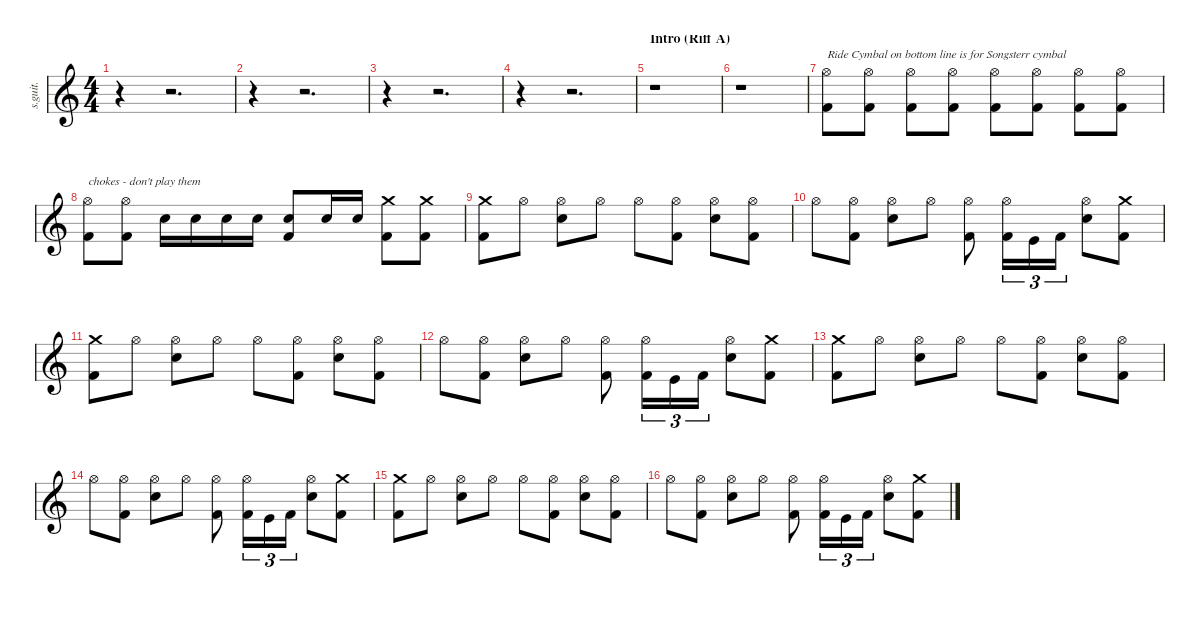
\defaultSystemsLayout 4
\hideDynamics
\bracketExtendMode nobrackets
\track ("Lars Ulrich - Drums" "s.guit.") {instrument percussion}
\staff {score}
\articulation defaults
\ts (4 4)
\beaming (8 2 2 2 2)
\tempo (140 hide)
\clef g2
\ks c
r.4{dy f} r.2{d} |
r.4 r.2{d} |
r.4 r.2{d} |
r.4 r.2{d} |
\section ("" "Intro (Riff A)")
r.1 |
r.1 |
("Hi-Hat (open)" "Kick (hit) 2").8{txt "Ride Cymbal on bottom line is for Songsterr cymbal" lyrics (0 "") lyrics (1 "") lyrics (2 "") lyrics (3 "") lyrics (4 "")} ("Hi-Hat (open)" "Kick (hit) 2").8{lyrics (0 "") lyrics (1 "") lyrics (2 "") lyrics (3 "") lyrics (4 "")} ("Hi-Hat (open)" "Kick (hit) 2").8{lyrics (0 "") lyrics (1 "") lyrics (2 "") lyrics (3 "") lyrics (4 "")} ("Hi-Hat (open)" "Kick (hit) 2").8{lyrics (0 "") lyrics (1 "") lyrics (2 "") lyrics (3 "") lyrics (4 "")} ("Hi-Hat (open)" "Kick (hit) 2").8{lyrics (0 "") lyrics (1 "") lyrics (2 "") lyrics (3 "") lyrics (4 "")} ("Hi-Hat (open)" "Kick (hit) 2").8{lyrics (0 "") lyrics (1 "") lyrics (2 "") lyrics (3 "") lyrics (4 "")} ("Hi-Hat (open)" "Kick (hit) 2").8{lyrics (0 "") lyrics (1 "") lyrics (2 "") lyrics (3 "") lyrics (4 "")} ("Hi-Hat (open)" "Kick (hit) 2").8{lyrics (0 "") lyrics (1 "") lyrics (2 "") lyrics (3 "") lyrics (4 "")} |
("Hi-Hat (open)" "Kick (hit) 2").8{txt "chokes - don't play them" lyrics (0 "") lyrics (1 "") lyrics (2 "") lyrics (3 "") lyrics (4 "")} ("Hi-Hat (open)" "Kick (hit) 2").8{lyrics (0 "") lyrics (1 "") lyrics (2 "") lyrics (3 "") lyrics (4 "")} "Snare (hit) 2".16{lyrics (0 "") lyrics (1 "") lyrics (2 "") lyrics (3 "") lyrics (4 "") dy ff} "Snare (hit) 2".16{lyrics (0 "") lyrics (1 "") lyrics (2 "") lyrics (3 "") lyrics (4 "")} "Snare (hit) 2".16{lyrics (0 "") lyrics (1 "") lyrics (2 "") lyrics (3 "") lyrics (4 "")} "Snare (hit) 2".16{lyrics (0 "") lyrics (1 "") lyrics (2 "") lyrics (3 "") lyrics (4 "")} ("Snare (hit) 2" "Kick (hit) 2").8{lyrics (0 "") lyrics (1 "") lyrics (2 "") lyrics (3 "") lyrics (4 "")} "Snare (hit) 2".16{lyrics (0 "") lyrics (1 "") lyrics (2 "") lyrics (3 "") lyrics (4 "")} "Snare (hit) 2".16{lyrics (0 "") lyrics (1 "") lyrics (2 "") lyrics (3 "") lyrics (4 "")} ("Crash medium (hit)" "Kick (hit) 2").8{lyrics (0 "") lyrics (1 "") lyrics (2 "") lyrics (3 "") lyrics (4 "") dy f} ("Crash medium (hit)" "Kick (hit) 2").8{lyrics (0 "") lyrics (1 "") lyrics (2 "") lyrics (3 "") lyrics (4 "")} |
("Crash medium (hit)" "Kick (hit) 2").8{lyrics (0 "") lyrics (1 "") lyrics (2 "") lyrics (3 "") lyrics (4 "")} "Hi-Hat (open)".8{lyrics (0 "") lyrics (1 "") lyrics (2 "") lyrics (3 "") lyrics (4 "")} ("Hi-Hat (open)" "Snare (hit) 2").8{lyrics (0 "") lyrics (1 "") lyrics (2 "") lyrics (3 "") lyrics (4 "")} "Hi-Hat (open)".8{lyrics (0 "") lyrics (1 "") lyrics (2 "") lyrics (3 "") lyrics (4 "")} "Hi-Hat (open)".8{lyrics (0 "") lyrics (1 "") lyrics (2 "") lyrics (3 "") lyrics (4 "")} ("Hi-Hat (open)" "Kick (hit) 2").8{lyrics (0 "") lyrics (1 "") lyrics (2 "") lyrics (3 "") lyrics (4 "")} ("Hi-Hat (open)" "Snare (hit) 2").8{lyrics (0 "") lyrics (1 "") lyrics (2 "") lyrics (3 "") lyrics (4 "")} ("Hi-Hat (open)" "Kick (hit) 2").8{lyrics (0 "") lyrics (1 "") lyrics (2 "") lyrics (3 "") lyrics (4 "")} |
"Hi-Hat (open)".8{lyrics (0 "") lyrics (1 "") lyrics (2 "") lyrics (3 "") lyrics (4 "")} ("Hi-Hat (open)" "Kick (hit) 2").8{lyrics (0 "") lyrics (1 "") lyrics (2 "") lyrics (3 "") lyrics (4 "")} ("Hi-Hat (open)" "Snare (hit) 2").8{lyrics (0 "") lyrics (1 "") lyrics (2 "") lyrics (3 "") lyrics (4 "")} "Hi-Hat (open)".8{lyrics (0 "") lyrics (1 "") lyrics (2 "") lyrics (3 "") lyrics (4 "")} ("Hi-Hat (open)" "Kick (hit) 2").8{lyrics (0 "") lyrics (1 "") lyrics (2 "") lyrics (3 "") lyrics (4 "")} ("Hi-Hat (open)" "Kick (hit) 2").16{tu (3 2) lyrics (0 "") lyrics (1 "") lyrics (2 "") lyrics (3 "") lyrics (4 "")} "Kick (hit)".16{tu (3 2) lyrics (0 "") lyrics (1 "") lyrics (2 "") lyrics (3 "") lyrics (4 "")} "Kick (hit) 2".16{tu (3 2) lyrics (0 "") lyrics (1 "") lyrics (2 "") lyrics (3 "") lyrics (4 "")} ("Hi-Hat (open)" "Snare (hit) 2").8{lyrics (0 "") lyrics (1 "") lyrics (2 "") lyrics (3 "") lyrics (4 "")} ("Crash medium (hit)" "Kick (hit) 2").8{lyrics (0 "") lyrics (1 "") lyrics (2 "") lyrics (3 "") lyrics (4 "")} |
("Crash medium (hit)" "Kick (hit) 2").8{lyrics (0 "") lyrics (1 "") lyrics (2 "") lyrics (3 "") lyrics (4 "")} "Hi-Hat (open)".8{lyrics (0 "") lyrics (1 "") lyrics (2 "") lyrics (3 "") lyrics (4 "")} ("Hi-Hat (open)" "Snare (hit) 2").8{lyrics (0 "") lyrics (1 "") lyrics (2 "") lyrics (3 "") lyrics (4 "")} "Hi-Hat (open)".8{lyrics (0 "") lyrics (1 "") lyrics (2 "") lyrics (3 "") lyrics (4 "")} "Hi-Hat (open)".8{lyrics (0 "") lyrics (1 "") lyrics (2 "") lyrics (3 "") lyrics (4 "")} ("Hi-Hat (open)" "Kick (hit) 2").8{lyrics (0 "") lyrics (1 "") lyrics (2 "") lyrics (3 "") lyrics (4 "")} ("Hi-Hat (open)" "Snare (hit) 2").8{lyrics (0 "") lyrics (1 "") lyrics (2 "") lyrics (3 "") lyrics (4 "")} ("Hi-Hat (open)" "Kick (hit) 2").8{lyrics (0 "") lyrics (1 "") lyrics (2 "") lyrics (3 "") lyrics (4 "")} |
"Hi-Hat (open)".8{lyrics (0 "") lyrics (1 "") lyrics (2 "") lyrics (3 "") lyrics (4 "")} ("Hi-Hat (open)" "Kick (hit) 2").8{lyrics (0 "") lyrics (1 "") lyrics (2 "") lyrics (3 "") lyrics (4 "")} ("Hi-Hat (open)" "Snare (hit) 2").8{lyrics (0 "") lyrics (1 "") lyrics (2 "") lyrics (3 "") lyrics (4 "")} "Hi-Hat (open)".8{lyrics (0 "") lyrics (1 "") lyrics (2 "") lyrics (3 "") lyrics (4 "")} ("Hi-Hat (open)" "Kick (hit) 2").8{lyrics (0 "") lyrics (1 "") lyrics (2 "") lyrics (3 "") lyrics (4 "")} ("Hi-Hat (open)" "Kick (hit) 2").16{tu (3 2) lyrics (0 "") lyrics (1 "") lyrics (2 "") lyrics (3 "") lyrics (4 "")} "Kick (hit)".16{tu (3 2) lyrics (0 "") lyrics (1 "") lyrics (2 "") lyrics (3 "") lyrics (4 "")} "Kick (hit) 2".16{tu (3 2) lyrics (0 "") lyrics (1 "") lyrics (2 "") lyrics (3 "") lyrics (4 "")} ("Hi-Hat (open)" "Snare (hit) 2").8{lyrics (0 "") lyrics (1 "") lyrics (2 "") lyrics (3 "") lyrics (4 "")} ("Crash medium (hit)" "Kick (hit) 2").8{lyrics (0 "") lyrics (1 "") lyrics (2 "") lyrics (3 "") lyrics (4 "")} |
("Crash medium (hit)" "Kick (hit) 2").8{lyrics (0 "") lyrics (1 "") lyrics (2 "") lyrics (3 "") lyrics (4 "")} "Hi-Hat (open)".8{lyrics (0 "") lyrics (1 "") lyrics (2 "") lyrics (3 "") lyrics (4 "")} ("Hi-Hat (open)" "Snare (hit) 2").8{lyrics (0 "") lyrics (1 "") lyrics (2 "") lyrics (3 "") lyrics (4 "")} "Hi-Hat (open)".8{lyrics (0 "") lyrics (1 "") lyrics (2 "") lyrics (3 "") lyrics (4 "")} "Hi-Hat (open)".8{lyrics (0 "") lyrics (1 "") lyrics (2 "") lyrics (3 "") lyrics (4 "")} ("Hi-Hat (open)" "Kick (hit) 2").8{lyrics (0 "") lyrics (1 "") lyrics (2 "") lyrics (3 "") lyrics (4 "")} ("Hi-Hat (open)" "Snare (hit) 2").8{lyrics (0 "") lyrics (1 "") lyrics (2 "") lyrics (3 "") lyrics (4 "")} ("Hi-Hat (open)" "Kick (hit) 2").8{lyrics (0 "") lyrics (1 "") lyrics (2 "") lyrics (3 "") lyrics (4 "")} |
"Hi-Hat (open)".8{lyrics (0 "") lyrics (1 "") lyrics (2 "") lyrics (3 "") lyrics (4 "")} ("Hi-Hat (open)" "Kick (hit) 2").8{lyrics (0 "") lyrics (1 "") lyrics (2 "") lyrics (3 "") lyrics (4 "")} ("Hi-Hat (open)" "Snare (hit) 2").8{lyrics (0 "") lyrics (1 "") lyrics (2 "") lyrics (3 "") lyrics (4 "")} "Hi-Hat (open)".8{lyrics (0 "") lyrics (1 "") lyrics (2 "") lyrics (3 "") lyrics (4 "")} ("Hi-Hat (open)" "Kick (hit) 2").8{lyrics (0 "") lyrics (1 "") lyrics (2 "") lyrics (3 "") lyrics (4 "")} ("Hi-Hat (open)" "Kick (hit) 2").16{tu (3 2) lyrics (0 "") lyrics (1 "") lyrics (2 "") lyrics (3 "") lyrics (4 "")} "Kick (hit)".16{tu (3 2) lyrics (0 "") lyrics (1 "") lyrics (2 "") lyrics (3 "") lyrics (4 "")} "Kick (hit) 2".16{tu (3 2) lyrics (0 "") lyrics (1 "") lyrics (2 "") lyrics (3 "") lyrics (4 "")} ("Hi-Hat (open)" "Snare (hit) 2").8{lyrics (0 "") lyrics (1 "") lyrics (2 "") lyrics (3 "") lyrics (4 "")} ("Crash medium (hit)" "Kick (hit) 2").8{lyrics (0 "") lyrics (1 "") lyrics (2 "") lyrics (3 "") lyrics (4 "")} |
("Crash medium (hit)" "Kick (hit) 2").8{lyrics (0 "") lyrics (1 "") lyrics (2 "") lyrics (3 "") lyrics (4 "")} "Hi-Hat (open)".8{lyrics (0 "") lyrics (1 "") lyrics (2 "") lyrics (3 "") lyrics (4 "")} ("Hi-Hat (open)" "Snare (hit) 2").8{lyrics (0 "") lyrics (1 "") lyrics (2 "") lyrics (3 "") lyrics (4 "")} "Hi-Hat (open)".8{lyrics (0 "") lyrics (1 "") lyrics (2 "") lyrics (3 "") lyrics (4 "")} "Hi-Hat (open)".8{lyrics (0 "") lyrics (1 "") lyrics (2 "") lyrics (3 "") lyrics (4 "")} ("Hi-Hat (open)" "Kick (hit) 2").8{lyrics (0 "") lyrics (1 "") lyrics (2 "") lyrics (3 "") lyrics (4 "")} ("Hi-Hat (open)" "Snare (hit) 2").8{lyrics (0 "") lyrics (1 "") lyrics (2 "") lyrics (3 "") lyrics (4 "")} ("Hi-Hat (open)" "Kick (hit) 2").8{lyrics (0 "") lyrics (1 "") lyrics (2 "") lyrics (3 "") lyrics (4 "")} |
"Hi-Hat (open)".8{lyrics (0 "") lyrics (1 "") lyrics (2 "") lyrics (3 "") lyrics (4 "")} ("Hi-Hat (open)" "Kick (hit) 2").8{lyrics (0 "") lyrics (1 "") lyrics (2 "") lyrics (3 "") lyrics (4 "")} ("Hi-Hat (open)" "Snare (hit) 2").8{lyrics (0 "") lyrics (1 "") lyrics (2 "") lyrics (3 "") lyrics (4 "")} "Hi-Hat (open)".8{lyrics (0 "") lyrics (1 "") lyrics (2 "") lyrics (3 "") lyrics (4 "")} ("Hi-Hat (open)" "Kick (hit) 2").8{lyrics (0 "") lyrics (1 "") lyrics (2 "") lyrics (3 "") lyrics (4 "")} ("Hi-Hat (open)" "Kick (hit) 2").16{tu (3 2) lyrics (0 "") lyrics (1 "") lyrics (2 "") lyrics (3 "") lyrics (4 "")} "Kick (hit)".16{tu (3 2) lyrics (0 "") lyrics (1 "") lyrics (2 "") lyrics (3 "") lyrics (4 "")} "Kick (hit) 2".16{tu (3 2) lyrics (0 "") lyrics (1 "") lyrics (2 "") lyrics (3 "") lyrics (4 "")} ("Hi-Hat (open)" "Snare (hit) 2").8{lyrics (0 "") lyrics (1 "") lyrics (2 "") lyrics (3 "") lyrics (4 "")} ("Crash medium (hit)" "Kick (hit) 2").8{lyrics (0 "") lyrics (1 "") lyrics (2 "") lyrics (3 "") lyrics (4 "")}
